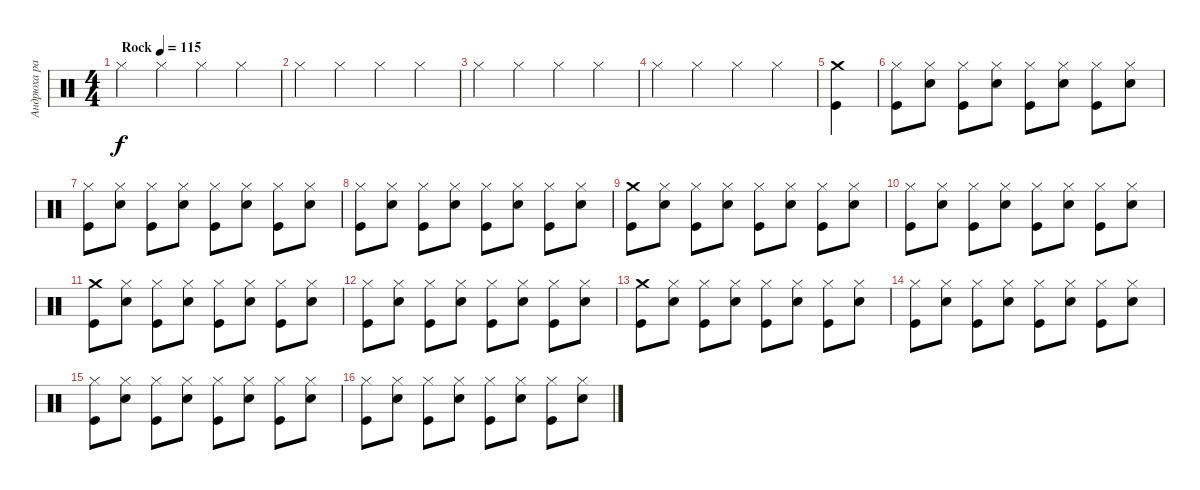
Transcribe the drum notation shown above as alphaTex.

\track ("Андрюха радостный" "Андрюха ра") {instrument percussion}
\staff {score}
\articulation defaults
\ts (4 4)
\tempo (115 "Rock")
\clef neutral
\ks c "Hi-Hat (closed)".4{dy f} "Hi-Hat (closed)".4 "Hi-Hat (closed)".4 "Hi-Hat (closed)".4
|
"Hi-Hat (closed)".4 "Hi-Hat (closed)".4 "Hi-Hat (closed)".4 "Hi-Hat (closed)".4 |
"Hi-Hat (closed)".4 "Hi-Hat (closed)".4 "Hi-Hat (closed)".4 "Hi-Hat (closed)".4 |
"Hi-Hat (closed)".4 "Hi-Hat (closed)".4 "Hi-Hat (closed)".4 "Hi-Hat (closed)".4 |
("Crash medium (hit)" "Kick (hit)").4 |
("Hi-Hat (closed)" "Kick (hit)").8 ("Hi-Hat (closed)" "Electric Snare (hit)").8 ("Hi-Hat (closed)" "Kick (hit)").8 ("Hi-Hat (closed)" "Electric Snare (hit)").8 ("Hi-Hat (closed)" "Kick (hit)").8 ("Hi-Hat (closed)" "Electric Snare (hit)").8 ("Hi-Hat (closed)" "Kick (hit)").8 ("Hi-Hat (closed)" "Electric Snare (hit)").8 |
("Hi-Hat (closed)" "Kick (hit)").8 ("Hi-Hat (closed)" "Electric Snare (hit)").8 ("Hi-Hat (closed)" "Kick (hit)").8 ("Hi-Hat (closed)" "Electric Snare (hit)").8 ("Hi-Hat (closed)" "Kick (hit)").8 ("Hi-Hat (closed)" "Electric Snare (hit)").8 ("Hi-Hat (closed)" "Kick (hit)").8 ("Hi-Hat (closed)" "Electric Snare (hit)").8 |
("Hi-Hat (closed)" "Kick (hit)").8 ("Hi-Hat (closed)" "Electric Snare (hit)").8 ("Hi-Hat (closed)" "Kick (hit)").8 ("Hi-Hat (closed)" "Electric Snare (hit)").8 ("Hi-Hat (closed)" "Kick (hit)").8 ("Hi-Hat (closed)" "Electric Snare (hit)").8 ("Hi-Hat (closed)" "Kick (hit)").8 ("Hi-Hat (closed)" "Electric Snare (hit)").8 |
("Crash medium (hit)" "Kick (hit)").8 ("Hi-Hat (closed)" "Electric Snare (hit)").8 ("Hi-Hat (closed)" "Kick (hit)").8 ("Hi-Hat (closed)" "Electric Snare (hit)").8 ("Hi-Hat (closed)" "Kick (hit)").8 ("Hi-Hat (closed)" "Electric Snare (hit)").8 ("Hi-Hat (closed)" "Kick (hit)").8 ("Hi-Hat (closed)" "Electric Snare (hit)").8 |
("Hi-Hat (closed)" "Kick (hit)").8 ("Hi-Hat (closed)" "Electric Snare (hit)").8 ("Hi-Hat (closed)" "Kick (hit)").8 ("Hi-Hat (closed)" "Electric Snare (hit)").8 ("Hi-Hat (closed)" "Kick (hit)").8 ("Hi-Hat (closed)" "Electric Snare (hit)").8 ("Hi-Hat (closed)" "Kick (hit)").8 ("Hi-Hat (closed)" "Electric Snare (hit)").8 |
("Crash medium (hit)" "Kick (hit)").8 ("Hi-Hat (closed)" "Electric Snare (hit)").8 ("Hi-Hat (closed)" "Kick (hit)").8 ("Hi-Hat (closed)" "Electric Snare (hit)").8 ("Hi-Hat (closed)" "Kick (hit)").8 ("Hi-Hat (closed)" "Electric Snare (hit)").8 ("Hi-Hat (closed)" "Kick (hit)").8 ("Hi-Hat (closed)" "Electric Snare (hit)").8 |
("Hi-Hat (closed)" "Kick (hit)").8 ("Hi-Hat (closed)" "Electric Snare (hit)").8 ("Hi-Hat (closed)" "Kick (hit)").8 ("Hi-Hat (closed)" "Electric Snare (hit)").8 ("Hi-Hat (closed)" "Kick (hit)").8 ("Hi-Hat (closed)" "Electric Snare (hit)").8 ("Hi-Hat (closed)" "Kick (hit)").8 ("Hi-Hat (closed)" "Electric Snare (hit)").8 |
("Crash medium (hit)" "Kick (hit)").8 ("Hi-Hat (closed)" "Electric Snare (hit)").8 ("Hi-Hat (closed)" "Kick (hit)").8 ("Hi-Hat (closed)" "Electric Snare (hit)").8 ("Hi-Hat (closed)" "Kick (hit)").8 ("Hi-Hat (closed)" "Electric Snare (hit)").8 ("Hi-Hat (closed)" "Kick (hit)").8 ("Hi-Hat (closed)" "Electric Snare (hit)").8 |
("Hi-Hat (closed)" "Kick (hit)").8 ("Hi-Hat (closed)" "Electric Snare (hit)").8 ("Hi-Hat (closed)" "Kick (hit)").8 ("Hi-Hat (closed)" "Electric Snare (hit)").8 ("Hi-Hat (closed)" "Kick (hit)").8 ("Hi-Hat (closed)" "Electric Snare (hit)").8 ("Hi-Hat (closed)" "Kick (hit)").8 ("Hi-Hat (closed)" "Electric Snare (hit)").8 |
("Hi-Hat (closed)" "Kick (hit)").8 ("Hi-Hat (closed)" "Electric Snare (hit)").8 ("Hi-Hat (closed)" "Kick (hit)").8 ("Hi-Hat (closed)" "Electric Snare (hit)").8 ("Hi-Hat (closed)" "Kick (hit)").8 ("Hi-Hat (closed)" "Electric Snare (hit)").8 ("Hi-Hat (closed)" "Kick (hit)").8 ("Hi-Hat (closed)" "Electric Snare (hit)").8 |
("Hi-Hat (closed)" "Kick (hit)").8 ("Hi-Hat (closed)" "Electric Snare (hit)").8 ("Hi-Hat (closed)" "Kick (hit)").8 ("Hi-Hat (closed)" "Electric Snare (hit)").8 ("Hi-Hat (closed)" "Kick (hit)").8 ("Hi-Hat (closed)" "Electric Snare (hit)").8 ("Hi-Hat (closed)" "Kick (hit)").8 ("Hi-Hat (closed)" "Electric Snare (hit)").8
